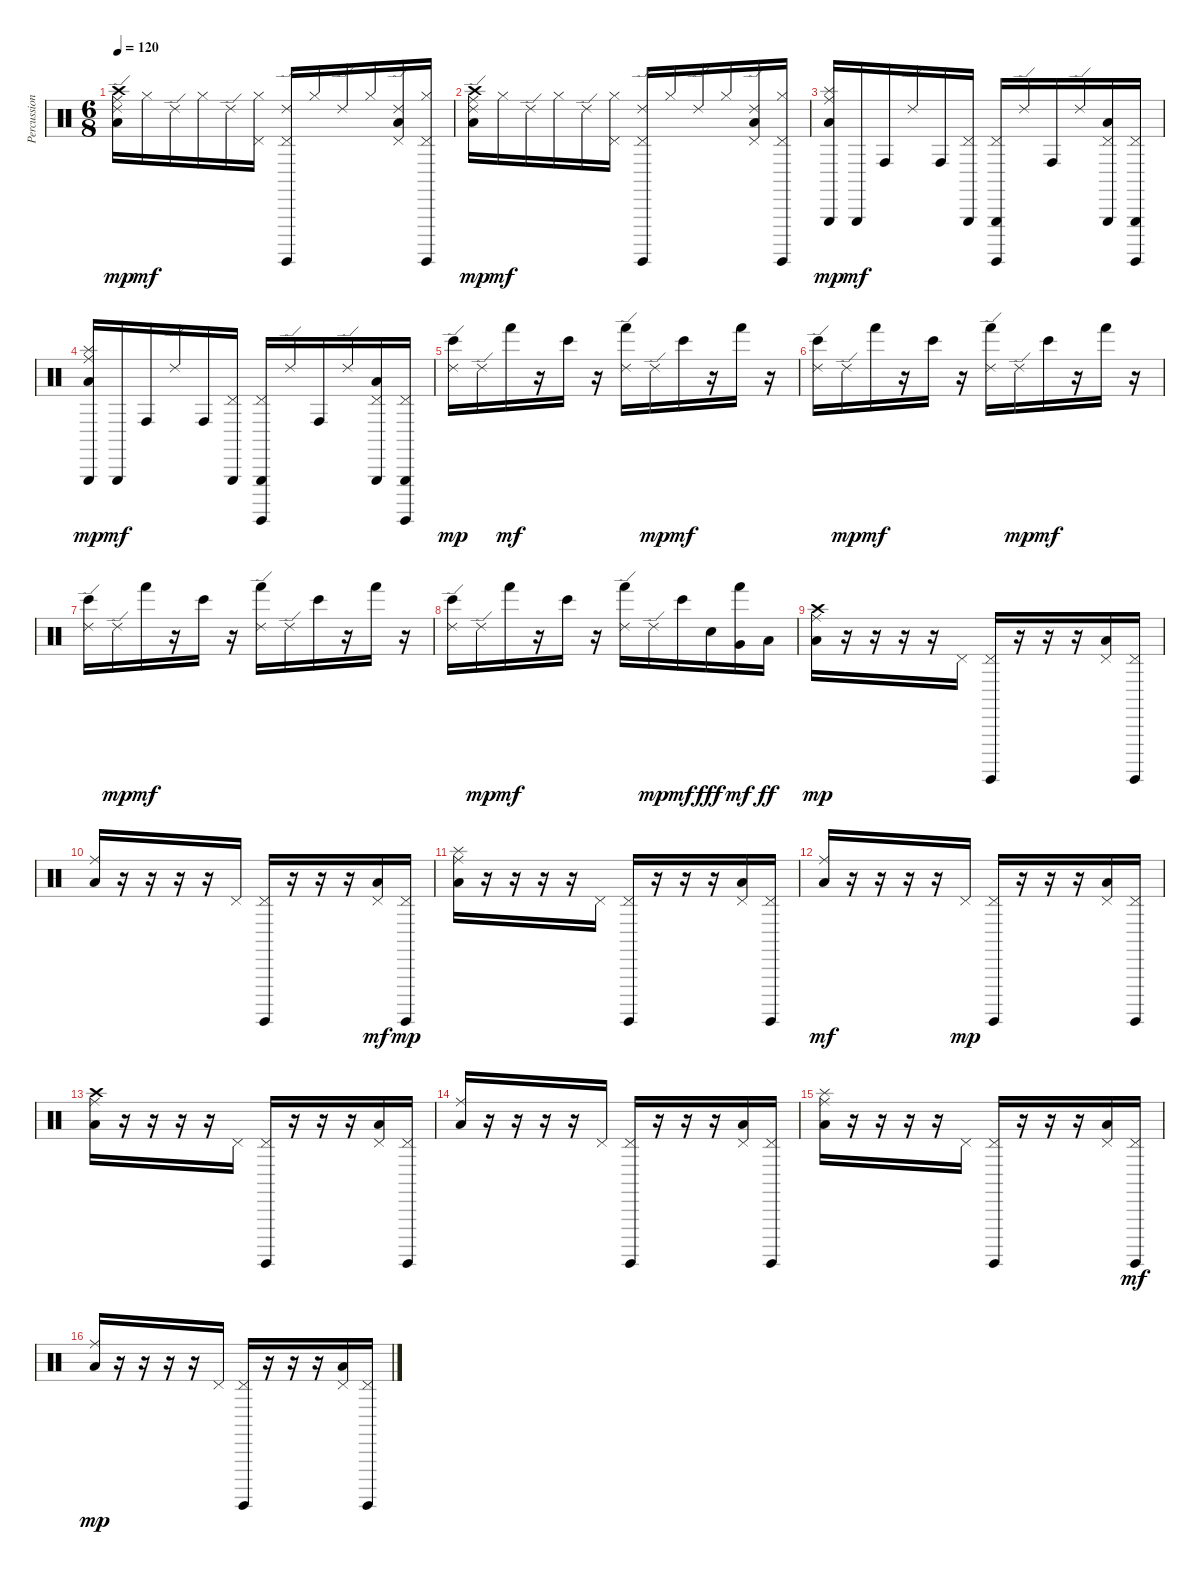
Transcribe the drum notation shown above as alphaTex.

\track ("Percussions" "Percussion") {instrument percussion}
\staff {score}
\articulation defaults
\ts (6 8)
\tempo 120
\clef neutral
\ks c
("Low Tom (hit)" "Ride (middle)" "Ride (edge) 2" "Crash high (hit)").16{dy mp} "Hi-Hat (closed)".16{dy mf} "Ride (edge) 2".16 "Hi-Hat (closed)".16 "Ride (edge) 2".16 ("Pedal Hi-Hat (hit)" "Hi-Hat (closed)").16 ("Surdo (hit)" "Pedal Hi-Hat (hit)" "Ride (edge) 2").16 "Hi-Hat (closed)".16 "Ride (edge) 2".16 "Hi-Hat (closed)".16 ("Low Tom (hit)" "Pedal Hi-Hat (hit)" "Ride (edge) 2").16 ("Surdo (hit)" "Pedal Hi-Hat (hit)" "Hi-Hat (closed)").16 |
("Low Tom (hit)" "Ride (middle)" "Ride (edge) 2" "Crash high (hit)").16{dy mp} "Hi-Hat (closed)".16{dy mf} "Ride (edge) 2".16 "Hi-Hat (closed)".16 "Ride (edge) 2".16 ("Pedal Hi-Hat (hit)" "Hi-Hat (closed)").16 ("Surdo (hit)" "Pedal Hi-Hat (hit)" "Ride (edge) 2").16 "Hi-Hat (closed)".16 "Ride (edge) 2".16 "Hi-Hat (closed)".16 ("Low Tom (hit)" "Pedal Hi-Hat (hit)" "Ride (edge) 2").16 ("Surdo (hit)" "Pedal Hi-Hat (hit)" "Hi-Hat (closed)").16 |
("Low Tom (hit)" "Ride (middle)" "Triangle (hit)" "Splash (hit)").16{dy mp} "Triangle (hit)".16{dy mf} "Conga high (hit)".16 "Ride (edge) 2".16 "Conga high (hit)".16 ("Pedal Hi-Hat (hit)" "Triangle (hit)").16 ("Surdo (hit)" "Pedal Hi-Hat (hit)" "Triangle (hit)").16 "Ride (edge) 2".16 "Conga high (hit)".16 "Ride (edge) 2".16 ("Low Tom (hit)" "Pedal Hi-Hat (hit)" "Triangle (hit)").16 ("Surdo (hit)" "Pedal Hi-Hat (hit)" "Triangle (hit)").16 |
("Low Tom (hit)" "Ride (middle)" "Triangle (hit)" "Splash (hit)").16{dy mp} "Triangle (hit)".16{dy mf} "Conga high (hit)".16 "Ride (edge) 2".16 "Conga high (hit)".16 ("Pedal Hi-Hat (hit)" "Triangle (hit)").16 ("Surdo (hit)" "Pedal Hi-Hat (hit)" "Triangle (hit)").16 "Ride (edge) 2".16 "Conga high (hit)".16 "Ride (edge) 2".16 ("Low Tom (hit)" "Pedal Hi-Hat (hit)" "Triangle (hit)").16 ("Surdo (hit)" "Pedal Hi-Hat (hit)" "Triangle (hit)").16 |
("Ride (edge) 2" "Bongo High (hit)").16{dy mp} "Ride (edge) 2".16 "Hand (hit)".16{dy mf} r.16 "Bongo High (hit)".16 r.16 ("Ride (edge) 2" "Hand (hit)").16 "Ride (edge) 2".16{dy mp} "Bongo High (hit)".16{dy mf} r.16 "Hand (hit)".16 r.16 |
("Ride (edge) 2" "Bongo High (hit)").16 "Ride (edge) 2".16{dy mp} "Hand (hit)".16{dy mf} r.16 "Bongo High (hit)".16 r.16 ("Ride (edge) 2" "Hand (hit)").16 "Ride (edge) 2".16{dy mp} "Bongo High (hit)".16{dy mf} r.16 "Hand (hit)".16 r.16 |
("Ride (edge) 2" "Bongo High (hit)").16 "Ride (edge) 2".16{dy mp} "Hand (hit)".16{dy mf} r.16 "Bongo High (hit)".16 r.16 ("Ride (edge) 2" "Hand (hit)").16 "Ride (edge) 2".16 "Bongo High (hit)".16 r.16 "Hand (hit)".16 r.16 |
("Ride (edge) 2" "Bongo High (hit)").16 "Ride (edge) 2".16{dy mp} "Hand (hit)".16{dy mf} r.16 "Bongo High (hit)".16 r.16 ("Ride (edge) 2" "Hand (hit)").16 "Ride (edge) 2".16{dy mp} "Bongo High (hit)".16{dy mf} "Electric Snare (hit)".16{dy fff} ("Very Low Tom (hit)" "Hand (hit)").16{dy mf} "Low Tom (hit)".16{dy ff} |
("Low Tom (hit)" "Ride (middle)" "Crash high (hit)").16{dy mp} r.16 r.16 r.16 r.16 "Pedal Hi-Hat (hit)".16 ("Surdo (hit)" "Pedal Hi-Hat (hit)").16 r.16 r.16 r.16 ("Low Tom (hit)" "Pedal Hi-Hat (hit)").16 ("Surdo (hit)" "Pedal Hi-Hat (hit)").16 |
("Low Tom (hit)" "Ride (middle)").16 r.16 r.16 r.16 r.16 "Pedal Hi-Hat (hit)".16 ("Surdo (hit)" "Pedal Hi-Hat (hit)").16 r.16 r.16 r.16 ("Low Tom (hit)" "Pedal Hi-Hat (hit)").16{dy mf} ("Surdo (hit)" "Pedal Hi-Hat (hit)").16{dy mp} |
("Low Tom (hit)" "Ride (middle)" "Splash (hit)").16 r.16 r.16 r.16 r.16 "Pedal Hi-Hat (hit)".16 ("Surdo (hit)" "Pedal Hi-Hat (hit)").16 r.16 r.16 r.16 ("Low Tom (hit)" "Pedal Hi-Hat (hit)").16 ("Surdo (hit)" "Pedal Hi-Hat (hit)").16 |
("Low Tom (hit)" "Ride (middle)").16{dy mf} r.16 r.16 r.16 r.16 "Pedal Hi-Hat (hit)".16{dy mp} ("Surdo (hit)" "Pedal Hi-Hat (hit)").16 r.16 r.16 r.16 ("Low Tom (hit)" "Pedal Hi-Hat (hit)").16 ("Surdo (hit)" "Pedal Hi-Hat (hit)").16 |
("Low Tom (hit)" "Ride (middle)" "Crash high (hit)").16 r.16 r.16 r.16 r.16 "Pedal Hi-Hat (hit)".16 ("Surdo (hit)" "Pedal Hi-Hat (hit)").16 r.16 r.16 r.16 ("Low Tom (hit)" "Pedal Hi-Hat (hit)").16 ("Surdo (hit)" "Pedal Hi-Hat (hit)").16 |
("Low Tom (hit)" "Ride (middle)").16 r.16 r.16 r.16 r.16 "Pedal Hi-Hat (hit)".16 ("Surdo (hit)" "Pedal Hi-Hat (hit)").16 r.16 r.16 r.16 ("Low Tom (hit)" "Pedal Hi-Hat (hit)").16 ("Surdo (hit)" "Pedal Hi-Hat (hit)").16 |
("Low Tom (hit)" "Ride (middle)" "Splash (hit)").16 r.16 r.16 r.16 r.16 "Pedal Hi-Hat (hit)".16 ("Surdo (hit)" "Pedal Hi-Hat (hit)").16 r.16 r.16 r.16 ("Low Tom (hit)" "Pedal Hi-Hat (hit)").16 ("Surdo (hit)" "Pedal Hi-Hat (hit)").16{dy mf} |
("Low Tom (hit)" "Ride (middle)").16{dy mp} r.16 r.16 r.16 r.16 "Pedal Hi-Hat (hit)".16 ("Surdo (hit)" "Pedal Hi-Hat (hit)").16 r.16 r.16 r.16 ("Low Tom (hit)" "Pedal Hi-Hat (hit)").16 ("Surdo (hit)" "Pedal Hi-Hat (hit)").16
